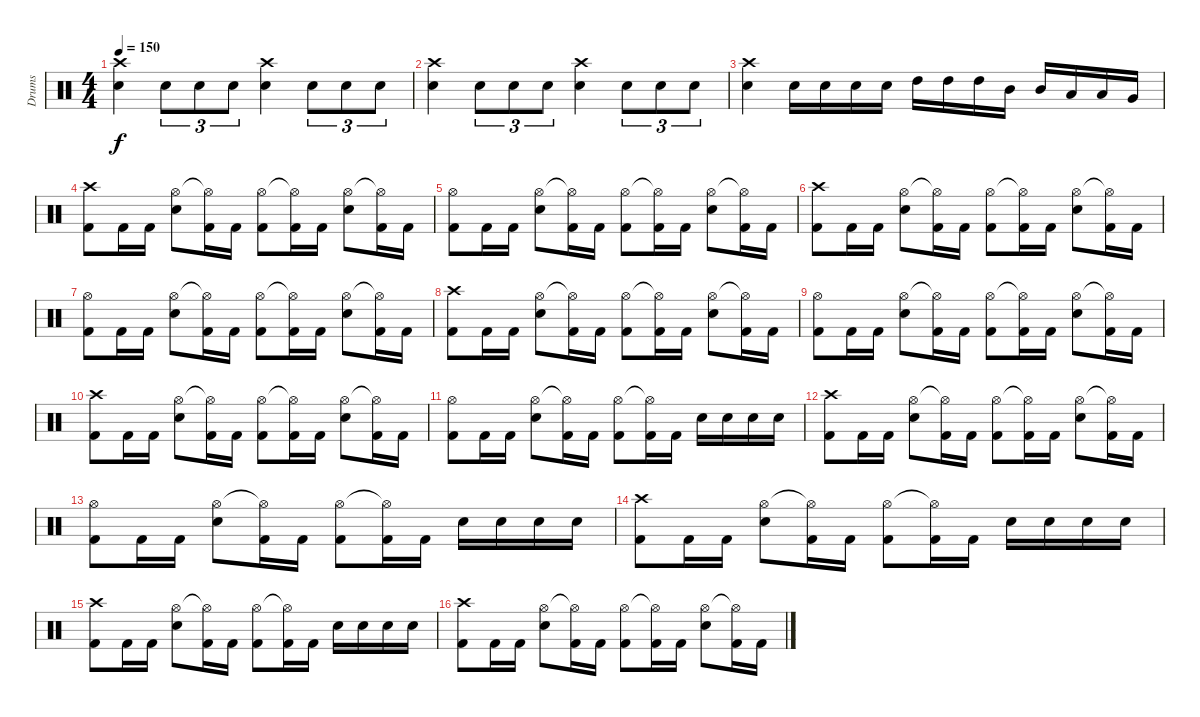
\track ("Drums" "Drums") {instrument percussion}
\staff {score}
\articulation defaults
\ts (4 4)
\tempo 150
\clef neutral
\ks c
("Crash high (hit)" "Snare (hit) 2").4{dy f} "Snare (hit) 2".8{tu (3 2)} "Snare (hit) 2".8{tu (3 2)} "Snare (hit) 2".8{tu (3 2)} ("Crash high (hit)" "Snare (hit) 2").4 "Snare (hit) 2".8{tu (3 2)} "Snare (hit) 2".8{tu (3 2)} "Snare (hit) 2".8{tu (3 2)} |
("Crash high (hit)" "Snare (hit) 2").4 "Snare (hit) 2".8{tu (3 2)} "Snare (hit) 2".8{tu (3 2)} "Snare (hit) 2".8{tu (3 2)} ("Crash high (hit)" "Snare (hit) 2").4 "Snare (hit) 2".8{tu (3 2)} "Snare (hit) 2".8{tu (3 2)} "Snare (hit) 2".8{tu (3 2)} |
("Crash high (hit)" "Snare (hit) 2").4 "Snare (hit) 2".16 "Snare (hit) 2".16 "Snare (hit) 2".16 "Snare (hit) 2".16 "High Tom (hit)".16 "High Tom (hit)".16 "High Tom (hit)".16 "Mid Tom (hit)".16 "Mid Tom (hit)".16 "Low Tom (hit)".16 "Low Tom (hit)".16 "Very Low Tom (hit)".16 |
("Kick (hit) 2" "Crash high (hit)").8 "Kick (hit) 2".16 "Kick (hit) 2".16 ("Snare (hit) 2" "Hi-Hat (open)").8 ("Kick (hit) 2" "Hi-Hat (open)"{t}).16 "Kick (hit) 2".16 ("Kick (hit) 2" "Hi-Hat (open)").8 ("Kick (hit) 2" "Hi-Hat (open)"{t}).16 "Kick (hit) 2".16 ("Snare (hit) 2" "Hi-Hat (open)").8 ("Kick (hit) 2" "Hi-Hat (open)"{t}).16 "Kick (hit) 2".16 |
("Kick (hit) 2" "Hi-Hat (open)").8 "Kick (hit) 2".16 "Kick (hit) 2".16 ("Snare (hit) 2" "Hi-Hat (open)").8 ("Kick (hit) 2" "Hi-Hat (open)"{t}).16 "Kick (hit) 2".16 ("Kick (hit) 2" "Hi-Hat (open)").8 ("Kick (hit) 2" "Hi-Hat (open)"{t}).16 "Kick (hit) 2".16 ("Snare (hit) 2" "Hi-Hat (open)").8 ("Kick (hit) 2" "Hi-Hat (open)"{t}).16 "Kick (hit) 2".16 |
("Kick (hit) 2" "Crash high (hit)").8 "Kick (hit) 2".16 "Kick (hit) 2".16 ("Snare (hit) 2" "Hi-Hat (open)").8 ("Kick (hit) 2" "Hi-Hat (open)"{t}).16 "Kick (hit) 2".16 ("Kick (hit) 2" "Hi-Hat (open)").8 ("Kick (hit) 2" "Hi-Hat (open)"{t}).16 "Kick (hit) 2".16 ("Snare (hit) 2" "Hi-Hat (open)").8 ("Kick (hit) 2" "Hi-Hat (open)"{t}).16 "Kick (hit) 2".16 |
("Kick (hit) 2" "Hi-Hat (open)").8 "Kick (hit) 2".16 "Kick (hit) 2".16 ("Snare (hit) 2" "Hi-Hat (open)").8 ("Kick (hit) 2" "Hi-Hat (open)"{t}).16 "Kick (hit) 2".16 ("Kick (hit) 2" "Hi-Hat (open)").8 ("Kick (hit) 2" "Hi-Hat (open)"{t}).16 "Kick (hit) 2".16 ("Snare (hit) 2" "Hi-Hat (open)").8 ("Kick (hit) 2" "Hi-Hat (open)"{t}).16 "Kick (hit) 2".16 |
("Kick (hit) 2" "Crash high (hit)").8 "Kick (hit) 2".16 "Kick (hit) 2".16 ("Snare (hit) 2" "Hi-Hat (open)").8 ("Kick (hit) 2" "Hi-Hat (open)"{t}).16 "Kick (hit) 2".16 ("Kick (hit) 2" "Hi-Hat (open)").8 ("Kick (hit) 2" "Hi-Hat (open)"{t}).16 "Kick (hit) 2".16 ("Snare (hit) 2" "Hi-Hat (open)").8 ("Kick (hit) 2" "Hi-Hat (open)"{t}).16 "Kick (hit) 2".16 |
("Kick (hit) 2" "Hi-Hat (open)").8 "Kick (hit) 2".16 "Kick (hit) 2".16 ("Snare (hit) 2" "Hi-Hat (open)").8 ("Kick (hit) 2" "Hi-Hat (open)"{t}).16 "Kick (hit) 2".16 ("Kick (hit) 2" "Hi-Hat (open)").8 ("Kick (hit) 2" "Hi-Hat (open)"{t}).16 "Kick (hit) 2".16 ("Snare (hit) 2" "Hi-Hat (open)").8 ("Kick (hit) 2" "Hi-Hat (open)"{t}).16 "Kick (hit) 2".16 |
("Kick (hit) 2" "Crash high (hit)").8 "Kick (hit) 2".16 "Kick (hit) 2".16 ("Snare (hit) 2" "Hi-Hat (open)").8 ("Kick (hit) 2" "Hi-Hat (open)"{t}).16 "Kick (hit) 2".16 ("Kick (hit) 2" "Hi-Hat (open)").8 ("Kick (hit) 2" "Hi-Hat (open)"{t}).16 "Kick (hit) 2".16 ("Snare (hit) 2" "Hi-Hat (open)").8 ("Kick (hit) 2" "Hi-Hat (open)"{t}).16 "Kick (hit) 2".16 |
("Kick (hit) 2" "Hi-Hat (open)").8 "Kick (hit) 2".16 "Kick (hit) 2".16 ("Snare (hit) 2" "Hi-Hat (open)").8 ("Kick (hit) 2" "Hi-Hat (open)"{t}).16 "Kick (hit) 2".16 ("Kick (hit) 2" "Hi-Hat (open)").8 ("Kick (hit) 2" "Hi-Hat (open)"{t}).16 "Kick (hit) 2".16 "Snare (hit) 2".16 "Snare (hit) 2".16 "Snare (hit) 2".16 "Snare (hit) 2".16 |
("Kick (hit) 2" "Crash high (hit)").8 "Kick (hit) 2".16 "Kick (hit) 2".16 ("Snare (hit) 2" "Hi-Hat (open)").8 ("Kick (hit) 2" "Hi-Hat (open)"{t}).16 "Kick (hit) 2".16 ("Kick (hit) 2" "Hi-Hat (open)").8 ("Kick (hit) 2" "Hi-Hat (open)"{t}).16 "Kick (hit) 2".16 ("Snare (hit) 2" "Hi-Hat (open)").8 ("Kick (hit) 2" "Hi-Hat (open)"{t}).16 "Kick (hit) 2".16 |
("Kick (hit) 2" "Hi-Hat (open)").8 "Kick (hit) 2".16 "Kick (hit) 2".16 ("Snare (hit) 2" "Hi-Hat (open)").8 ("Kick (hit) 2" "Hi-Hat (open)"{t}).16 "Kick (hit) 2".16 ("Kick (hit) 2" "Hi-Hat (open)").8 ("Kick (hit) 2" "Hi-Hat (open)"{t}).16 "Kick (hit) 2".16 "Snare (hit) 2".16 "Snare (hit) 2".16 "Snare (hit) 2".16 "Snare (hit) 2".16 |
("Kick (hit) 2" "Crash high (hit)").8 "Kick (hit) 2".16 "Kick (hit) 2".16 ("Snare (hit) 2" "Hi-Hat (open)").8 ("Kick (hit) 2" "Hi-Hat (open)"{t}).16 "Kick (hit) 2".16 ("Kick (hit) 2" "Hi-Hat (open)").8 ("Kick (hit) 2" "Hi-Hat (open)"{t}).16 "Kick (hit) 2".16 "Snare (hit) 2".16 "Snare (hit) 2".16 "Snare (hit) 2".16 "Snare (hit) 2".16 |
("Kick (hit) 2" "Crash high (hit)").8 "Kick (hit) 2".16 "Kick (hit) 2".16 ("Snare (hit) 2" "Hi-Hat (open)").8 ("Kick (hit) 2" "Hi-Hat (open)"{t}).16 "Kick (hit) 2".16 ("Kick (hit) 2" "Hi-Hat (open)").8 ("Kick (hit) 2" "Hi-Hat (open)"{t}).16 "Kick (hit) 2".16 "Snare (hit) 2".16 "Snare (hit) 2".16 "Snare (hit) 2".16 "Snare (hit) 2".16 |
("Kick (hit) 2" "Crash high (hit)").8 "Kick (hit) 2".16 "Kick (hit) 2".16 ("Snare (hit) 2" "Hi-Hat (open)").8 ("Kick (hit) 2" "Hi-Hat (open)"{t}).16 "Kick (hit) 2".16 ("Kick (hit) 2" "Hi-Hat (open)").8 ("Kick (hit) 2" "Hi-Hat (open)"{t}).16 "Kick (hit) 2".16 ("Snare (hit) 2" "Hi-Hat (open)").8 ("Kick (hit) 2" "Hi-Hat (open)"{t}).16 "Kick (hit) 2".16
